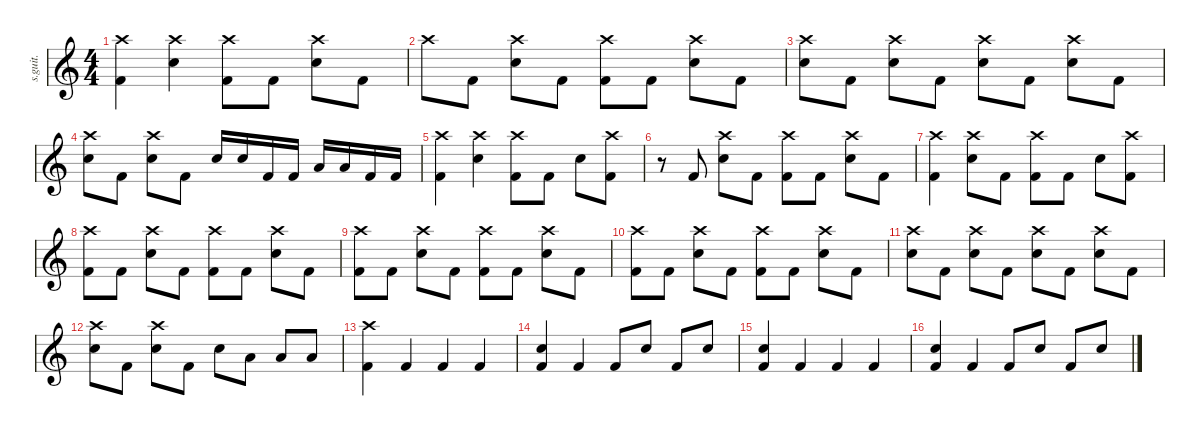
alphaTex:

\defaultSystemsLayout 4
\hideDynamics
\bracketExtendMode nobrackets
\track ("" "s.guit.") {instrument percussion}
\staff {score}
\articulation defaults
\ts (4 4)
\tempo (184 hide)
\clef g2
\ks c
("Crash high (hit)" "Kick (hit) 2").4{dy f} ("Crash high (hit)" "Snare (hit) 2").4 ("Crash high (hit)" "Kick (hit) 2").8 "Kick (hit) 2".8 ("Crash high (hit)" "Snare (hit) 2").8 "Kick (hit) 2".8 |
"Crash high (hit)".8 "Kick (hit) 2".8 ("Crash high (hit)" "Snare (hit) 2").8 "Kick (hit) 2".8 ("Crash high (hit)" "Kick (hit) 2").8 "Kick (hit) 2".8 ("Crash high (hit)" "Snare (hit) 2").8 "Kick (hit) 2".8 |
("Crash high (hit)" "Snare (hit) 2").8 "Kick (hit) 2".8 ("Crash high (hit)" "Snare (hit) 2").8 "Kick (hit) 2".8 ("Crash high (hit)" "Snare (hit) 2").8 "Kick (hit) 2".8 ("Crash high (hit)" "Snare (hit) 2").8 "Kick (hit) 2".8 |
("Crash high (hit)" "Snare (hit) 2").8 "Kick (hit) 2".8 ("Crash high (hit)" "Snare (hit) 2").8 "Kick (hit) 2".8 "Snare (hit) 2".16 "Snare (hit) 2".16 "Kick (hit) 2".16 "Kick (hit) 2".16 "Low Tom (hit)".16 "Low Tom (hit)".16 "Kick (hit) 2".16 "Kick (hit) 2".16 |
("Crash high (hit)" "Kick (hit) 2").4 ("Crash high (hit)" "Snare (hit) 2").4 ("Crash high (hit)" "Kick (hit) 2").8 "Kick (hit) 2".8 "Snare (hit) 2".8 ("Crash high (hit)" "Kick (hit) 2").8 |
r.8 "Kick (hit) 2".8 ("Crash high (hit)" "Snare (hit) 2").8 "Kick (hit) 2".8 ("Crash high (hit)" "Kick (hit) 2").8 "Kick (hit) 2".8 ("Crash high (hit)" "Snare (hit) 2").8 "Kick (hit) 2".8 |
("Crash high (hit)" "Kick (hit) 2").4 ("Crash high (hit)" "Snare (hit) 2").8 "Kick (hit) 2".8 ("Crash high (hit)" "Kick (hit) 2").8 "Kick (hit) 2".8 "Snare (hit) 2".8 ("Crash high (hit)" "Kick (hit) 2").8 |
("Crash high (hit)" "Kick (hit) 2").8 "Kick (hit) 2".8 ("Crash high (hit)" "Snare (hit) 2").8 "Kick (hit) 2".8 ("Crash high (hit)" "Kick (hit) 2").8 "Kick (hit) 2".8 ("Crash high (hit)" "Snare (hit) 2").8 "Kick (hit) 2".8 |
("Crash high (hit)" "Kick (hit) 2").8 "Kick (hit) 2".8 ("Crash high (hit)" "Snare (hit) 2").8 "Kick (hit) 2".8 ("Crash high (hit)" "Kick (hit) 2").8 "Kick (hit) 2".8 ("Crash high (hit)" "Snare (hit) 2").8 "Kick (hit) 2".8 |
("Crash high (hit)" "Kick (hit) 2").8 "Kick (hit) 2".8 ("Crash high (hit)" "Snare (hit) 2").8 "Kick (hit) 2".8 ("Crash high (hit)" "Kick (hit) 2").8 "Kick (hit) 2".8 ("Crash high (hit)" "Snare (hit) 2").8 "Kick (hit) 2".8 |
("Crash high (hit)" "Snare (hit) 2").8 "Kick (hit) 2".8 ("Crash high (hit)" "Snare (hit) 2").8 "Kick (hit) 2".8 ("Crash high (hit)" "Snare (hit) 2").8 "Kick (hit) 2".8 ("Crash high (hit)" "Snare (hit) 2").8 "Kick (hit) 2".8 |
("Crash high (hit)" "Snare (hit) 2").8 "Kick (hit) 2".8 ("Crash high (hit)" "Snare (hit) 2").8 "Kick (hit) 2".8 "Snare (hit) 2".8 "Low Tom (hit)".8 "Low Floor Tom (hit)".8 "Low Floor Tom (hit)".8 |
("Crash high (hit)" "Kick (hit) 2").4 "Kick (hit) 2".4 "Kick (hit) 2".4 "Kick (hit) 2".4 |
("Snare (hit) 2" "Kick (hit) 2").4 "Kick (hit) 2".4 "Kick (hit) 2".8 "Snare (hit) 2".8 "Kick (hit) 2".8 "Snare (hit) 2".8 |
("Snare (hit) 2" "Kick (hit) 2").4 "Kick (hit) 2".4 "Kick (hit) 2".4 "Kick (hit) 2".4 |
("Snare (hit) 2" "Kick (hit) 2").4 "Kick (hit) 2".4 "Kick (hit) 2".8 "Snare (hit) 2".8 "Kick (hit) 2".8 "Snare (hit) 2".8
